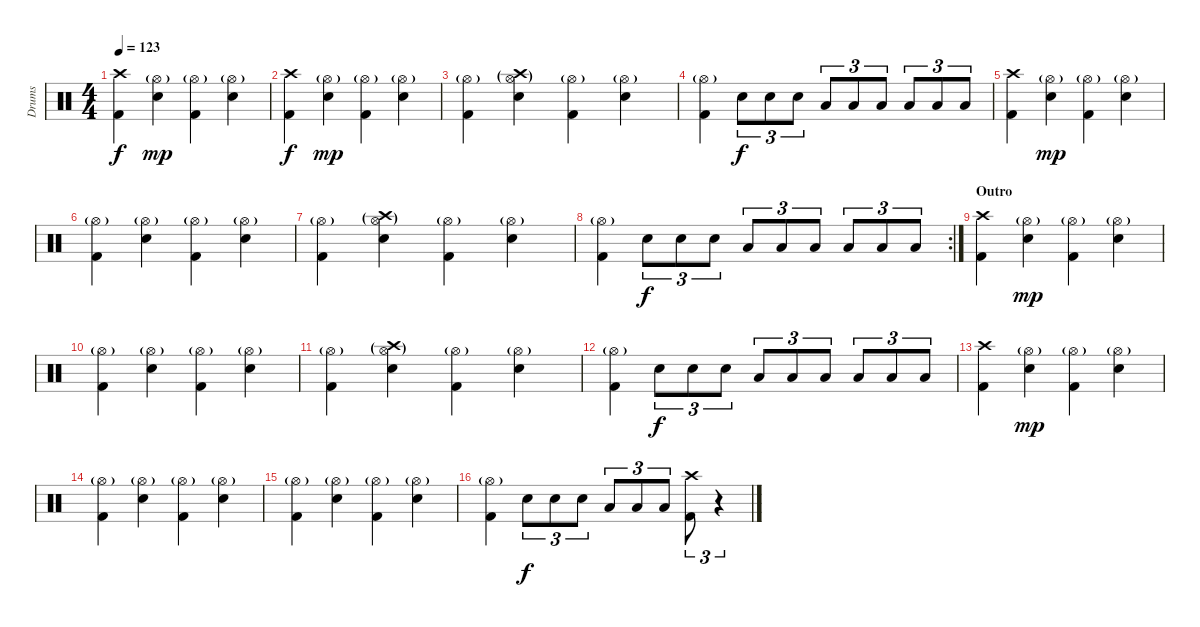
\track ("Drums" "Drums") {instrument percussion}
\staff {score}
\articulation defaults
\ts (4 4)
\tempo 123
\clef neutral
\ks c
("Crash high (hit)" "Kick (hit) 2").4{dy f} ("Electric Snare (hit)" "Hi-Hat (open)"{g}).4{dy mp} ("Hi-Hat (open)"{g} "Kick (hit) 2").4 ("Electric Snare (hit)" "Hi-Hat (open)"{g}).4 |
("Crash high (hit)" "Kick (hit) 2").4{dy f} ("Electric Snare (hit)" "Hi-Hat (open)"{g}).4{dy mp} ("Hi-Hat (open)"{g} "Kick (hit) 2").4 ("Electric Snare (hit)" "Hi-Hat (open)"{g}).4 |
("Hi-Hat (open)"{g} "Kick (hit) 2").4 ("Electric Snare (hit)" "Hi-Hat (open)"{g} "Crash high (hit)"{g}).4 ("Hi-Hat (open)"{g} "Kick (hit) 2").4 ("Electric Snare (hit)" "Hi-Hat (open)"{g}).4 |
("Hi-Hat (open)"{g} "Kick (hit) 2").4 "Electric Snare (hit)".8{tu (3 2) dy f} "Electric Snare (hit)".8{tu (3 2)} "Electric Snare (hit)".8{tu (3 2)} "Low Tom (hit)".8{tu (3 2)} "Low Tom (hit)".8{tu (3 2)} "Low Tom (hit)".8{tu (3 2)} "Low Floor Tom (hit)".8{tu (3 2)} "Low Floor Tom (hit)".8{tu (3 2)} "Low Floor Tom (hit)".8{tu (3 2)} |
("Crash high (hit)" "Kick (hit) 2").4 ("Electric Snare (hit)" "Hi-Hat (open)"{g}).4{dy mp} ("Hi-Hat (open)"{g} "Kick (hit) 2").4 ("Electric Snare (hit)" "Hi-Hat (open)"{g}).4 |
("Hi-Hat (open)"{g} "Kick (hit) 2").4 ("Electric Snare (hit)" "Hi-Hat (open)"{g}).4 ("Hi-Hat (open)"{g} "Kick (hit) 2").4 ("Electric Snare (hit)" "Hi-Hat (open)"{g}).4 |
("Hi-Hat (open)"{g} "Kick (hit) 2").4 ("Electric Snare (hit)" "Hi-Hat (open)"{g} "Crash high (hit)"{g}).4 ("Hi-Hat (open)"{g} "Kick (hit) 2").4 ("Electric Snare (hit)" "Hi-Hat (open)"{g}).4 |
\rc 2
("Hi-Hat (open)"{g} "Kick (hit) 2").4 "Electric Snare (hit)".8{tu (3 2) dy f} "Electric Snare (hit)".8{tu (3 2)} "Electric Snare (hit)".8{tu (3 2)} "Low Tom (hit)".8{tu (3 2)} "Low Tom (hit)".8{tu (3 2)} "Low Tom (hit)".8{tu (3 2)} "Low Floor Tom (hit)".8{tu (3 2)} "Low Floor Tom (hit)".8{tu (3 2)} "Low Floor Tom (hit)".8{tu (3 2)} |
\section ("" "Outro")
("Crash high (hit)" "Kick (hit) 2").4 ("Electric Snare (hit)" "Hi-Hat (open)"{g}).4{dy mp} ("Hi-Hat (open)"{g} "Kick (hit) 2").4 ("Electric Snare (hit)" "Hi-Hat (open)"{g}).4 |
("Hi-Hat (open)"{g} "Kick (hit) 2").4 ("Electric Snare (hit)" "Hi-Hat (open)"{g}).4 ("Hi-Hat (open)"{g} "Kick (hit) 2").4 ("Electric Snare (hit)" "Hi-Hat (open)"{g}).4 |
("Hi-Hat (open)"{g} "Kick (hit) 2").4 ("Electric Snare (hit)" "Hi-Hat (open)"{g} "Crash high (hit)"{g}).4 ("Hi-Hat (open)"{g} "Kick (hit) 2").4 ("Electric Snare (hit)" "Hi-Hat (open)"{g}).4 |
("Hi-Hat (open)"{g} "Kick (hit) 2").4 "Electric Snare (hit)".8{tu (3 2) dy f} "Electric Snare (hit)".8{tu (3 2)} "Electric Snare (hit)".8{tu (3 2)} "Low Tom (hit)".8{tu (3 2)} "Low Tom (hit)".8{tu (3 2)} "Low Tom (hit)".8{tu (3 2)} "Low Floor Tom (hit)".8{tu (3 2)} "Low Floor Tom (hit)".8{tu (3 2)} "Low Floor Tom (hit)".8{tu (3 2)} |
("Crash high (hit)" "Kick (hit) 2").4 ("Electric Snare (hit)" "Hi-Hat (open)"{g}).4{dy mp} ("Hi-Hat (open)"{g} "Kick (hit) 2").4 ("Electric Snare (hit)" "Hi-Hat (open)"{g}).4 |
("Hi-Hat (open)"{g} "Kick (hit) 2").4 ("Electric Snare (hit)" "Hi-Hat (open)"{g}).4 ("Hi-Hat (open)"{g} "Kick (hit) 2").4 ("Electric Snare (hit)" "Hi-Hat (open)"{g}).4 |
("Hi-Hat (open)"{g} "Kick (hit) 2").4 ("Electric Snare (hit)" "Hi-Hat (open)"{g}).4 ("Hi-Hat (open)"{g} "Kick (hit) 2").4 ("Electric Snare (hit)" "Hi-Hat (open)"{g}).4 |
("Hi-Hat (open)"{g} "Kick (hit) 2").4 "Electric Snare (hit)".8{tu (3 2) dy f} "Electric Snare (hit)".8{tu (3 2)} "Electric Snare (hit)".8{tu (3 2)} "Low Tom (hit)".8{tu (3 2)} "Low Tom (hit)".8{tu (3 2)} "Low Tom (hit)".8{tu (3 2)} ("Crash high (hit)" "Kick (hit) 2").8{tu (3 2)} r.4{tu (3 2)}
